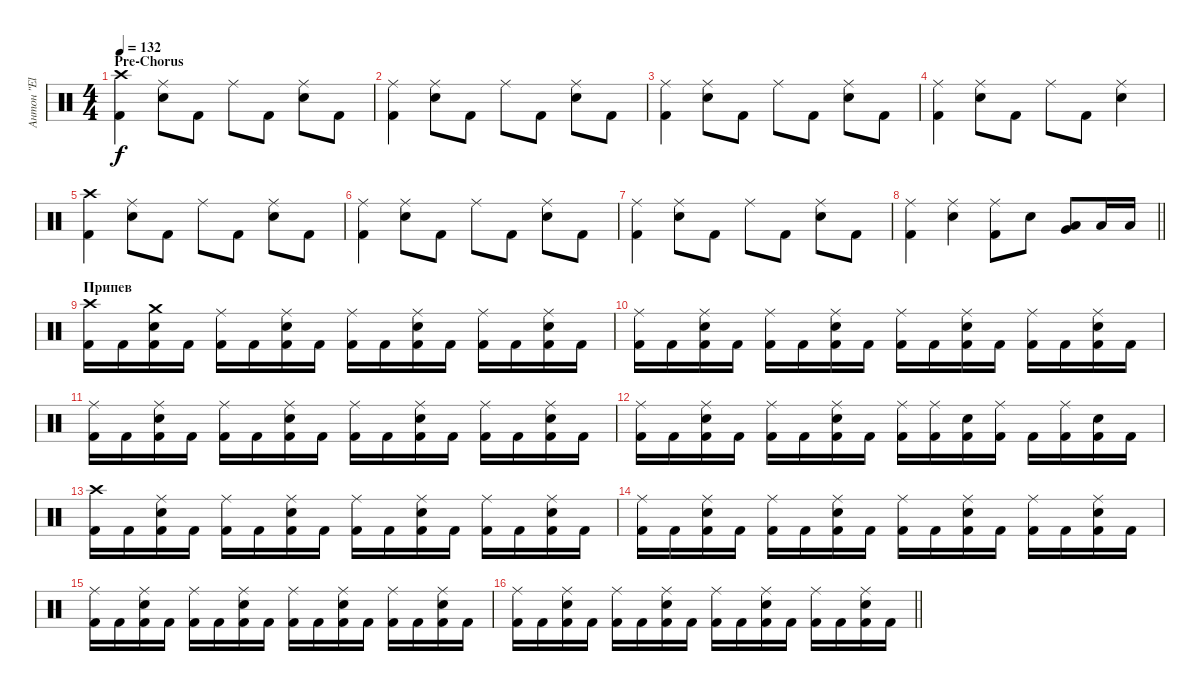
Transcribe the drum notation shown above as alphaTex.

\track ("Антон \"El Bastardo\" Смольянин" "Антон \"El ") {instrument percussion}
\staff {score}
\articulation defaults
\ts (4 4)
\section ("" "Pre-Chorus")
\tempo 132
\clef neutral
\ks c
("Crash high (hit)" "Kick (hit) 2").4{dy f} ("Ride (middle)" "Electric Snare (hit)").8 "Kick (hit) 2".8 "Ride (middle)".8 "Kick (hit) 2".8 ("Ride (middle)" "Electric Snare (hit)").8 "Kick (hit) 2".8 |
("Ride (middle)" "Kick (hit) 2").4 ("Ride (middle)" "Electric Snare (hit)").8 "Kick (hit) 2".8 "Ride (middle)".8 "Kick (hit) 2".8 ("Ride (middle)" "Electric Snare (hit)").8 "Kick (hit) 2".8 |
("Ride (middle)" "Kick (hit) 2").4 ("Ride (middle)" "Electric Snare (hit)").8 "Kick (hit) 2".8 "Ride (middle)".8 "Kick (hit) 2".8 ("Ride (middle)" "Electric Snare (hit)").8 "Kick (hit) 2".8 |
("Ride (middle)" "Kick (hit) 2").4 ("Ride (middle)" "Electric Snare (hit)").8 "Kick (hit) 2".8 "Ride (middle)".8 "Kick (hit) 2".8 ("Ride (middle)" "Electric Snare (hit)").4 |
("Crash high (hit)" "Kick (hit) 2").4 ("Ride (middle)" "Electric Snare (hit)").8 "Kick (hit) 2".8 "Ride (middle)".8 "Kick (hit) 2".8 ("Ride (middle)" "Electric Snare (hit)").8 "Kick (hit) 2".8 |
("Ride (middle)" "Kick (hit) 2").4 ("Ride (middle)" "Electric Snare (hit)").8 "Kick (hit) 2".8 "Ride (middle)".8 "Kick (hit) 2".8 ("Ride (middle)" "Electric Snare (hit)").8 "Kick (hit) 2".8 |
("Ride (middle)" "Kick (hit) 2").4 ("Ride (middle)" "Electric Snare (hit)").8 "Kick (hit) 2".8 "Ride (middle)".8 "Kick (hit) 2".8 ("Ride (middle)" "Electric Snare (hit)").8 "Kick (hit) 2".8 |
\barLineRight lightlight
("Ride (middle)" "Kick (hit) 2").4 ("Ride (middle)" "Electric Snare (hit)").4 ("Ride (middle)" "Kick (hit) 2").8 "Electric Snare (hit)".8 ("Low Tom (hit)" "Very Low Tom (hit)").8 "Low Tom (hit)".16 "Low Tom (hit)".16 |
\section ("" "Припев")
("Crash high (hit)" "Kick (hit) 2").16 "Kick (hit) 2".16 ("Crash medium (hit)" "Electric Snare (hit)" "Kick (hit) 2").16 "Kick (hit) 2".16 ("Ride (middle)" "Kick (hit) 2").16 "Kick (hit) 2".16 ("Ride (middle)" "Electric Snare (hit)" "Kick (hit) 2").16 "Kick (hit) 2".16 ("Ride (middle)" "Kick (hit) 2").16 "Kick (hit) 2".16 ("Ride (middle)" "Electric Snare (hit)" "Kick (hit) 2").16 "Kick (hit) 2".16 ("Ride (middle)" "Kick (hit) 2").16 "Kick (hit) 2".16 ("Ride (middle)" "Electric Snare (hit)" "Kick (hit) 2").16 "Kick (hit) 2".16 |
("Ride (middle)" "Kick (hit) 2").16 "Kick (hit) 2".16 ("Ride (middle)" "Electric Snare (hit)" "Kick (hit) 2").16 "Kick (hit) 2".16 ("Ride (middle)" "Kick (hit) 2").16 "Kick (hit) 2".16 ("Ride (middle)" "Electric Snare (hit)" "Kick (hit) 2").16 "Kick (hit) 2".16 ("Ride (middle)" "Kick (hit) 2").16 "Kick (hit) 2".16 ("Ride (middle)" "Electric Snare (hit)" "Kick (hit) 2").16 "Kick (hit) 2".16 ("Ride (middle)" "Kick (hit) 2").16 "Kick (hit) 2".16 ("Ride (middle)" "Electric Snare (hit)" "Kick (hit) 2").16 "Kick (hit) 2".16 |
("Ride (middle)" "Kick (hit) 2").16 "Kick (hit) 2".16 ("Ride (middle)" "Electric Snare (hit)" "Kick (hit) 2").16 "Kick (hit) 2".16 ("Ride (middle)" "Kick (hit) 2").16 "Kick (hit) 2".16 ("Ride (middle)" "Electric Snare (hit)" "Kick (hit) 2").16 "Kick (hit) 2".16 ("Ride (middle)" "Kick (hit) 2").16 "Kick (hit) 2".16 ("Ride (middle)" "Electric Snare (hit)" "Kick (hit) 2").16 "Kick (hit) 2".16 ("Ride (middle)" "Kick (hit) 2").16 "Kick (hit) 2".16 ("Ride (middle)" "Electric Snare (hit)" "Kick (hit) 2").16 "Kick (hit) 2".16 |
("Ride (middle)" "Kick (hit) 2").16 "Kick (hit) 2".16 ("Ride (middle)" "Electric Snare (hit)" "Kick (hit) 2").16 "Kick (hit) 2".16 ("Ride (middle)" "Kick (hit) 2").16 "Kick (hit) 2".16 ("Ride (middle)" "Electric Snare (hit)" "Kick (hit) 2").16 "Kick (hit) 2".16 ("Ride (middle)" "Kick (hit) 2").16 ("Ride (middle)" "Kick (hit) 2").16 ("Electric Snare (hit)" "Kick (hit) 2").16 ("Ride (middle)" "Kick (hit) 2").16 "Kick (hit) 2".16 ("Ride (middle)" "Kick (hit) 2").16 ("Electric Snare (hit)" "Kick (hit) 2").16 "Kick (hit) 2".16 |
("Crash high (hit)" "Kick (hit) 2").16 "Kick (hit) 2".16 ("Ride (middle)" "Electric Snare (hit)" "Kick (hit) 2").16 "Kick (hit) 2".16 ("Ride (middle)" "Kick (hit) 2").16 "Kick (hit) 2".16 ("Ride (middle)" "Electric Snare (hit)" "Kick (hit) 2").16 "Kick (hit) 2".16 ("Ride (middle)" "Kick (hit) 2").16 "Kick (hit) 2".16 ("Ride (middle)" "Electric Snare (hit)" "Kick (hit) 2").16 "Kick (hit) 2".16 ("Ride (middle)" "Kick (hit) 2").16 "Kick (hit) 2".16 ("Ride (middle)" "Electric Snare (hit)" "Kick (hit) 2").16 "Kick (hit) 2".16 |
("Ride (middle)" "Kick (hit) 2").16 "Kick (hit) 2".16 ("Ride (middle)" "Electric Snare (hit)" "Kick (hit) 2").16 "Kick (hit) 2".16 ("Ride (middle)" "Kick (hit) 2").16 "Kick (hit) 2".16 ("Ride (middle)" "Electric Snare (hit)" "Kick (hit) 2").16 "Kick (hit) 2".16 ("Ride (middle)" "Kick (hit) 2").16 "Kick (hit) 2".16 ("Ride (middle)" "Electric Snare (hit)" "Kick (hit) 2").16 "Kick (hit) 2".16 ("Ride (middle)" "Kick (hit) 2").16 "Kick (hit) 2".16 ("Ride (middle)" "Electric Snare (hit)" "Kick (hit) 2").16 "Kick (hit) 2".16 |
("Ride (middle)" "Kick (hit) 2").16 "Kick (hit) 2".16 ("Ride (middle)" "Electric Snare (hit)" "Kick (hit) 2").16 "Kick (hit) 2".16 ("Ride (middle)" "Kick (hit) 2").16 "Kick (hit) 2".16 ("Ride (middle)" "Electric Snare (hit)" "Kick (hit) 2").16 "Kick (hit) 2".16 ("Ride (middle)" "Kick (hit) 2").16 "Kick (hit) 2".16 ("Ride (middle)" "Electric Snare (hit)" "Kick (hit) 2").16 "Kick (hit) 2".16 ("Ride (middle)" "Kick (hit) 2").16 "Kick (hit) 2".16 ("Ride (middle)" "Electric Snare (hit)" "Kick (hit) 2").16 "Kick (hit) 2".16 |
\barLineRight lightlight
("Ride (middle)" "Kick (hit) 2").16 "Kick (hit) 2".16 ("Ride (middle)" "Electric Snare (hit)" "Kick (hit) 2").16 "Kick (hit) 2".16 ("Ride (middle)" "Kick (hit) 2").16 "Kick (hit) 2".16 ("Ride (middle)" "Electric Snare (hit)" "Kick (hit) 2").16 "Kick (hit) 2".16 ("Ride (middle)" "Kick (hit) 2").16 "Kick (hit) 2".16 ("Ride (middle)" "Electric Snare (hit)" "Kick (hit) 2").16 "Kick (hit) 2".16 ("Ride (middle)" "Kick (hit) 2").16 "Kick (hit) 2".16 ("Ride (middle)" "Electric Snare (hit)" "Kick (hit) 2").16 "Kick (hit) 2".16
